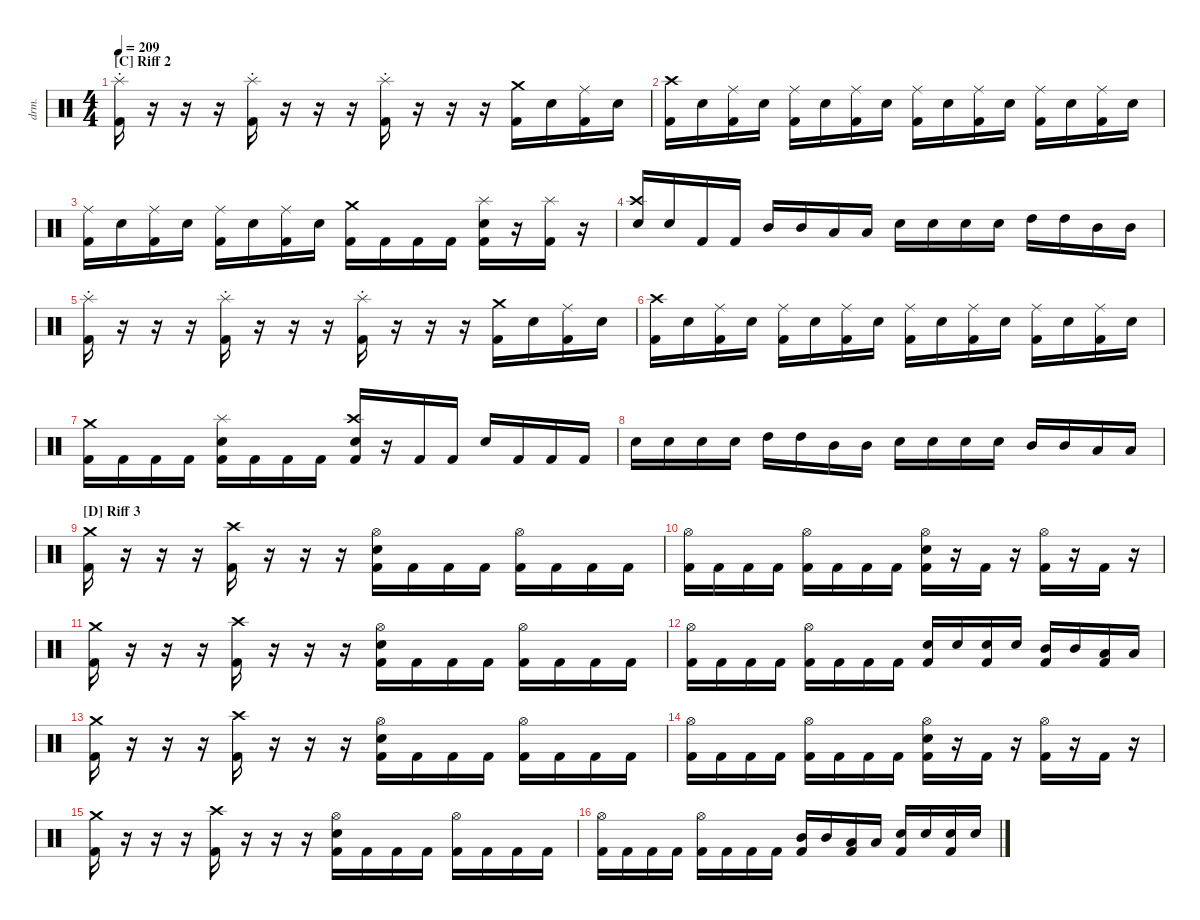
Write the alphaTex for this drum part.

\hideDynamics
\bracketExtendMode nobrackets
\track ("Drums" "drm.") {instrument percussion}
\staff {score}
\articulation defaults
\ts (4 4)
\section ("C" "Riff 2")
\tempo 209
\clef neutral
\ks c
("Splash (choke)" "Kick (hit) 2").16{dy mf beam Down} r.16{beam Down} r.16{beam Down} r.16{beam Down} ("Splash (choke)" "Kick (hit) 2").16{beam Down} r.16{beam Down} r.16{beam Down} r.16{beam Down} ("Splash (choke)" "Kick (hit) 2").16{beam Down} r.16{beam Down} r.16{beam Down} r.16{beam Down} ("Kick (hit) 2" "Crash medium (hit)").16{beam Down} "Snare (hit) 2".16{beam Down} ("Kick (hit) 2" "Ride (middle)").16{beam Down} "Snare (hit) 2".16{beam Down} |
("Kick (hit) 2" "Crash high (hit)").16{beam Down} "Snare (hit) 2".16{beam Down} ("Kick (hit) 2" "Ride (middle)").16{beam Down} "Snare (hit) 2".16{beam Down} ("Kick (hit) 2" "Ride (middle)").16{beam Down} "Snare (hit) 2".16{beam Down} ("Kick (hit) 2" "Ride (middle)").16{beam Down} "Snare (hit) 2".16{beam Down} ("Kick (hit) 2" "Ride (middle)").16{beam Down} "Snare (hit) 2".16{beam Down} ("Kick (hit) 2" "Ride (middle)").16{beam Down} "Snare (hit) 2".16{beam Down} ("Kick (hit) 2" "Ride (middle)").16{beam Down} "Snare (hit) 2".16{beam Down} ("Kick (hit) 2" "Ride (middle)").16{beam Down} "Snare (hit) 2".16{beam Down} |
("Kick (hit) 2" "Ride (middle)").16{beam Down} "Snare (hit) 2".16{beam Down} ("Kick (hit) 2" "Ride (middle)").16{beam Down} "Snare (hit) 2".16{beam Down} ("Kick (hit) 2" "Ride (middle)").16{beam Down} "Snare (hit) 2".16{beam Down} ("Kick (hit) 2" "Ride (middle)").16{beam Down} "Snare (hit) 2".16{beam Down} ("Kick (hit) 2" "Crash medium (hit)").16{beam Down} "Kick (hit) 2".16{beam Down} "Kick (hit) 2".16{beam Down} "Kick (hit) 2".16{beam Down} ("Kick (hit) 2" "Splash (hit)" "Snare (hit) 2").16{beam Down} r.16{beam Down} ("Kick (hit) 2" "Splash (hit)").16{beam Down} r.16{beam Down} |
("Snare (hit) 2" "Crash high (hit)").16{beam Up} "Snare (hit) 2".16{beam Up} "Kick (hit) 2".16{beam Up} "Kick (hit) 2".16{beam Up} "Mid Tom (hit)".16{beam Up} "Mid Tom (hit)".16{beam Up} "Low Tom (hit)".16{beam Up} "Low Tom (hit)".16{beam Up} "Snare (hit) 2".16{beam Down} "Snare (hit) 2".16{beam Down} "Snare (hit) 2".16{beam Down} "Snare (hit) 2".16{beam Down} "High Tom (hit)".16{beam Down} "High Tom (hit)".16{beam Down} "Mid Tom (hit)".16{beam Down} "Mid Tom (hit)".16{beam Down} |
("Splash (choke)" "Kick (hit) 2").16{beam Down} r.16{beam Down} r.16{beam Down} r.16{beam Down} ("Splash (choke)" "Kick (hit) 2").16{beam Down} r.16{beam Down} r.16{beam Down} r.16{beam Down} ("Splash (choke)" "Kick (hit) 2").16{beam Down} r.16{beam Down} r.16{beam Down} r.16{beam Down} ("Kick (hit) 2" "Crash medium (hit)").16{beam Down} "Snare (hit) 2".16{beam Down} ("Kick (hit) 2" "Ride (middle)").16{beam Down} "Snare (hit) 2".16{beam Down} |
("Kick (hit) 2" "Crash high (hit)").16{beam Down} "Snare (hit) 2".16{beam Down} ("Kick (hit) 2" "Ride (middle)").16{beam Down} "Snare (hit) 2".16{beam Down} ("Kick (hit) 2" "Ride (middle)").16{beam Down} "Snare (hit) 2".16{beam Down} ("Kick (hit) 2" "Ride (middle)").16{beam Down} "Snare (hit) 2".16{beam Down} ("Kick (hit) 2" "Ride (middle)").16{beam Down} "Snare (hit) 2".16{beam Down} ("Kick (hit) 2" "Ride (middle)").16{beam Down} "Snare (hit) 2".16{beam Down} ("Kick (hit) 2" "Ride (middle)").16{beam Down} "Snare (hit) 2".16{beam Down} ("Kick (hit) 2" "Ride (middle)").16{beam Down} "Snare (hit) 2".16{beam Down} |
("Kick (hit) 2" "Crash medium (hit)").16{beam Down} "Kick (hit) 2".16{beam Down} "Kick (hit) 2".16{beam Down} "Kick (hit) 2".16{beam Down} ("Kick (hit) 2" "Splash (hit)" "Snare (hit) 2").16{beam Down} "Kick (hit) 2".16{beam Down} "Kick (hit) 2".16{beam Down} "Kick (hit) 2".16{beam Down} ("Kick (hit) 2" "Crash high (hit)" "Snare (hit) 2").16{beam Up} r.16{beam Up} "Kick (hit) 2".16{beam Up} "Kick (hit) 2".16{beam Up} "Snare (hit) 2".16{beam Up} "Kick (hit) 2".16{beam Up} "Kick (hit) 2".16{beam Up} "Kick (hit) 2".16{beam Up} |
"Snare (hit) 2".16{beam Down} "Snare (hit) 2".16{beam Down} "Snare (hit) 2".16{beam Down} "Snare (hit) 2".16{beam Down} "High Tom (hit)".16{beam Down} "High Tom (hit)".16{beam Down} "Mid Tom (hit)".16{beam Down} "Mid Tom (hit)".16{beam Down} "Snare (hit) 2".16{beam Down} "Snare (hit) 2".16{beam Down} "Snare (hit) 2".16{beam Down} "Snare (hit) 2".16{beam Down} "Mid Tom (hit)".16{beam Up} "Mid Tom (hit)".16{beam Up} "Low Tom (hit)".16{beam Up} "Low Tom (hit)".16{beam Up} |
\section ("D" "Riff 3")
("Kick (hit) 2" "Crash medium (hit)").16{beam Down} r.16{beam Down} r.16{beam Down} r.16{beam Down} ("Kick (hit) 2" "Crash high (hit)").16{beam Down} r.16{beam Down} r.16{beam Down} r.16{beam Down} ("Kick (hit) 2" "Snare (hit) 2" "Hi-Hat (open)").16{beam Down} "Kick (hit) 2".16{beam Down} "Kick (hit) 2".16{beam Down} "Kick (hit) 2".16{beam Down} ("Kick (hit) 2" "Hi-Hat (open)").16{beam Down} "Kick (hit) 2".16{beam Down} "Kick (hit) 2".16{beam Down} "Kick (hit) 2".16{beam Down} |
("Kick (hit) 2" "Hi-Hat (open)").16{beam Down} "Kick (hit) 2".16{beam Down} "Kick (hit) 2".16{beam Down} "Kick (hit) 2".16{beam Down} ("Kick (hit) 2" "Hi-Hat (open)").16{beam Down} "Kick (hit) 2".16{beam Down} "Kick (hit) 2".16{beam Down} "Kick (hit) 2".16{beam Down} ("Kick (hit) 2" "Hi-Hat (open)" "Snare (hit) 2").16{beam Down} r.16{beam Down} "Kick (hit) 2".16{beam Down} r.16{beam Down} ("Kick (hit) 2" "Hi-Hat (open)").16{beam Down} r.16{beam Down} "Kick (hit) 2".16{beam Down} r.16{beam Down} |
("Kick (hit) 2" "Crash medium (hit)").16{beam Down} r.16{beam Down} r.16{beam Down} r.16{beam Down} ("Kick (hit) 2" "Crash high (hit)").16{beam Down} r.16{beam Down} r.16{beam Down} r.16{beam Down} ("Kick (hit) 2" "Snare (hit) 2" "Hi-Hat (open)").16{beam Down} "Kick (hit) 2".16{beam Down} "Kick (hit) 2".16{beam Down} "Kick (hit) 2".16{beam Down} ("Kick (hit) 2" "Hi-Hat (open)").16{beam Down} "Kick (hit) 2".16{beam Down} "Kick (hit) 2".16{beam Down} "Kick (hit) 2".16{beam Down} |
("Kick (hit) 2" "Hi-Hat (open)").16{beam Down} "Kick (hit) 2".16{beam Down} "Kick (hit) 2".16{beam Down} "Kick (hit) 2".16{beam Down} ("Kick (hit) 2" "Hi-Hat (open)").16{beam Down} "Kick (hit) 2".16{beam Down} "Kick (hit) 2".16{beam Down} "Kick (hit) 2".16{beam Down} ("Kick (hit) 2" "Snare (hit) 2").16{beam Up} "Snare (hit) 2".16{beam Up} ("Kick (hit) 2" "Snare (hit) 2").16{beam Up} "Snare (hit) 2".16{beam Up} ("Kick (hit) 2" "Mid Tom (hit)").16{beam Up} "Mid Tom (hit)".16{beam Up} ("Kick (hit) 2" "Low Tom (hit)").16{beam Up} "Low Tom (hit)".16{beam Up} |
("Kick (hit) 2" "Crash medium (hit)").16{beam Down} r.16{beam Down} r.16{beam Down} r.16{beam Down} ("Kick (hit) 2" "Crash high (hit)").16{beam Down} r.16{beam Down} r.16{beam Down} r.16{beam Down} ("Kick (hit) 2" "Snare (hit) 2" "Hi-Hat (open)").16{beam Down} "Kick (hit) 2".16{beam Down} "Kick (hit) 2".16{beam Down} "Kick (hit) 2".16{beam Down} ("Kick (hit) 2" "Hi-Hat (open)").16{beam Down} "Kick (hit) 2".16{beam Down} "Kick (hit) 2".16{beam Down} "Kick (hit) 2".16{beam Down} |
("Kick (hit) 2" "Hi-Hat (open)").16{beam Down} "Kick (hit) 2".16{beam Down} "Kick (hit) 2".16{beam Down} "Kick (hit) 2".16{beam Down} ("Kick (hit) 2" "Hi-Hat (open)").16{beam Down} "Kick (hit) 2".16{beam Down} "Kick (hit) 2".16{beam Down} "Kick (hit) 2".16{beam Down} ("Kick (hit) 2" "Hi-Hat (open)" "Snare (hit) 2").16{beam Down} r.16{beam Down} "Kick (hit) 2".16{beam Down} r.16{beam Down} ("Kick (hit) 2" "Hi-Hat (open)").16{beam Down} r.16{beam Down} "Kick (hit) 2".16{beam Down} r.16{beam Down} |
("Kick (hit) 2" "Crash medium (hit)").16{beam Down} r.16{beam Down} r.16{beam Down} r.16{beam Down} ("Kick (hit) 2" "Crash high (hit)").16{beam Down} r.16{beam Down} r.16{beam Down} r.16{beam Down} ("Kick (hit) 2" "Snare (hit) 2" "Hi-Hat (open)").16{beam Down} "Kick (hit) 2".16{beam Down} "Kick (hit) 2".16{beam Down} "Kick (hit) 2".16{beam Down} ("Kick (hit) 2" "Hi-Hat (open)").16{beam Down} "Kick (hit) 2".16{beam Down} "Kick (hit) 2".16{beam Down} "Kick (hit) 2".16{beam Down} |
("Kick (hit) 2" "Hi-Hat (open)").16{beam Down} "Kick (hit) 2".16{beam Down} "Kick (hit) 2".16{beam Down} "Kick (hit) 2".16{beam Down} ("Kick (hit) 2" "Hi-Hat (open)").16{beam Down} "Kick (hit) 2".16{beam Down} "Kick (hit) 2".16{beam Down} "Kick (hit) 2".16{beam Down} ("Kick (hit) 2" "Mid Tom (hit)").16{beam Up} "Mid Tom (hit)".16{beam Up} ("Kick (hit) 2" "Low Tom (hit)").16{beam Up} "Low Tom (hit)".16{beam Up} ("Kick (hit) 2" "Snare (hit) 2").16{beam Up} "Snare (hit) 2".16{beam Up} ("Kick (hit) 2" "Snare (hit) 2").16{beam Up} "Snare (hit) 2".16{beam Up}
